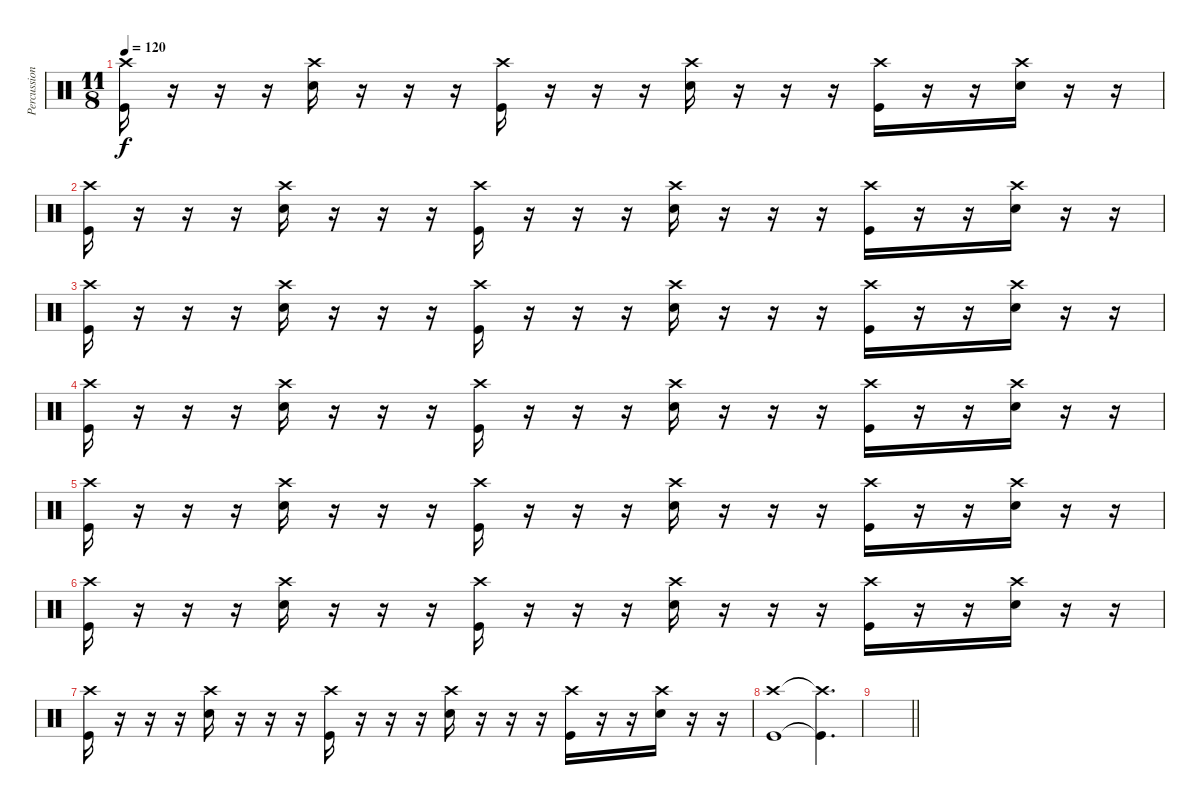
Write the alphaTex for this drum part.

\track ("Percussion" "Percussion") {instrument percussion}
\staff {score}
\articulation defaults
\ts (11 8)
\tempo 120
\clef neutral
\ks c
("Crash high (hit)" "Kick (hit)").16{dy f} r.16 r.16 r.16 ("Crash high (hit)" "Snare (hit) 2").16 r.16 r.16 r.16 ("Crash high (hit)" "Kick (hit)").16 r.16 r.16 r.16 ("Crash high (hit)" "Snare (hit) 2").16 r.16 r.16 r.16 ("Crash high (hit)" "Kick (hit)").16 r.16 r.16 ("Crash high (hit)" "Snare (hit) 2").16 r.16 r.16 |
("Crash high (hit)" "Kick (hit)").16 r.16 r.16 r.16 ("Crash high (hit)" "Snare (hit) 2").16 r.16 r.16 r.16 ("Crash high (hit)" "Kick (hit)").16 r.16 r.16 r.16 ("Crash high (hit)" "Snare (hit) 2").16 r.16 r.16 r.16 ("Crash high (hit)" "Kick (hit)").16 r.16 r.16 ("Crash high (hit)" "Snare (hit) 2").16 r.16 r.16 |
("Crash high (hit)" "Kick (hit)").16 r.16 r.16 r.16 ("Crash high (hit)" "Snare (hit) 2").16 r.16 r.16 r.16 ("Crash high (hit)" "Kick (hit)").16 r.16 r.16 r.16 ("Crash high (hit)" "Snare (hit) 2").16 r.16 r.16 r.16 ("Crash high (hit)" "Kick (hit)").16 r.16 r.16 ("Crash high (hit)" "Snare (hit) 2").16 r.16 r.16 |
("Crash high (hit)" "Kick (hit)").16 r.16 r.16 r.16 ("Crash high (hit)" "Snare (hit) 2").16 r.16 r.16 r.16 ("Crash high (hit)" "Kick (hit)").16 r.16 r.16 r.16 ("Crash high (hit)" "Snare (hit) 2").16 r.16 r.16 r.16 ("Crash high (hit)" "Kick (hit)").16 r.16 r.16 ("Crash high (hit)" "Snare (hit) 2").16 r.16 r.16 |
("Crash high (hit)" "Kick (hit)").16 r.16 r.16 r.16 ("Crash high (hit)" "Snare (hit) 2").16 r.16 r.16 r.16 ("Crash high (hit)" "Kick (hit)").16 r.16 r.16 r.16 ("Crash high (hit)" "Snare (hit) 2").16 r.16 r.16 r.16 ("Crash high (hit)" "Kick (hit)").16 r.16 r.16 ("Crash high (hit)" "Snare (hit) 2").16 r.16 r.16 |
("Crash high (hit)" "Kick (hit)").16 r.16 r.16 r.16 ("Crash high (hit)" "Snare (hit) 2").16 r.16 r.16 r.16 ("Crash high (hit)" "Kick (hit)").16 r.16 r.16 r.16 ("Crash high (hit)" "Snare (hit) 2").16 r.16 r.16 r.16 ("Crash high (hit)" "Kick (hit)").16 r.16 r.16 ("Crash high (hit)" "Snare (hit) 2").16 r.16 r.16 |
("Crash high (hit)" "Kick (hit)").16 r.16 r.16 r.16 ("Crash high (hit)" "Snare (hit) 2").16 r.16 r.16 r.16 ("Crash high (hit)" "Kick (hit)").16 r.16 r.16 r.16 ("Crash high (hit)" "Snare (hit) 2").16 r.16 r.16 r.16 ("Crash high (hit)" "Kick (hit)").16 r.16 r.16 ("Crash high (hit)" "Snare (hit) 2").16 r.16 r.16 |
("Crash high (hit)" "Kick (hit)").1 ("Crash high (hit)"{t} "Kick (hit)"{t}).4{d} |
\barLineRight lightlight
